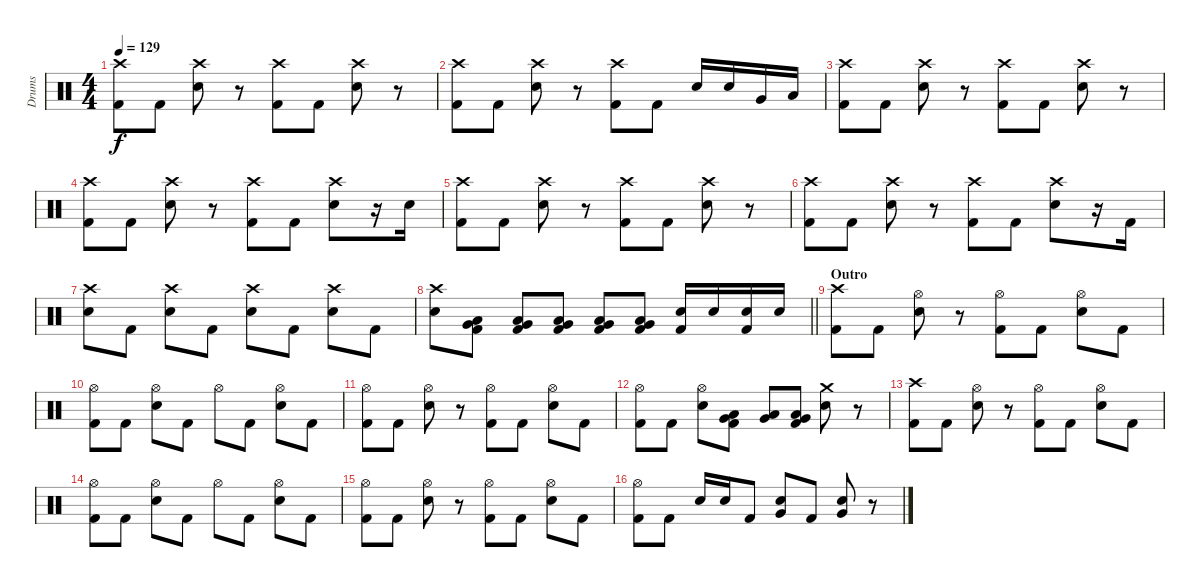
\track ("Drums" "Drums") {instrument percussion}
\staff {score}
\articulation defaults
\ts (4 4)
\tempo 129
\clef neutral
\ks c
("Crash high (hit)" "Kick (hit) 2").8{dy f} "Kick (hit) 2".8 ("Crash high (hit)" "Electric Snare (hit)").8 r.8 ("Crash high (hit)" "Kick (hit) 2").8 "Kick (hit) 2".8 ("Crash high (hit)" "Electric Snare (hit)").8 r.8 |
("Crash high (hit)" "Kick (hit) 2").8 "Kick (hit) 2".8 ("Crash high (hit)" "Electric Snare (hit)").8 r.8 ("Crash high (hit)" "Kick (hit) 2").8 "Kick (hit) 2".8 "Electric Snare (hit)".16 "Electric Snare (hit)".16 "Very Low Tom (hit)".16 "Low Tom (hit)".16 |
("Crash high (hit)" "Kick (hit) 2").8 "Kick (hit) 2".8 ("Crash high (hit)" "Electric Snare (hit)").8 r.8 ("Crash high (hit)" "Kick (hit) 2").8 "Kick (hit) 2".8 ("Crash high (hit)" "Electric Snare (hit)").8 r.8 |
("Crash high (hit)" "Kick (hit) 2").8 "Kick (hit) 2".8 ("Crash high (hit)" "Electric Snare (hit)").8 r.8 ("Crash high (hit)" "Kick (hit) 2").8 "Kick (hit) 2".8 ("Crash high (hit)" "Electric Snare (hit)").8 r.16 "Electric Snare (hit)".16 |
("Crash high (hit)" "Kick (hit) 2").8 "Kick (hit) 2".8 ("Crash high (hit)" "Electric Snare (hit)").8 r.8 ("Crash high (hit)" "Kick (hit) 2").8 "Kick (hit) 2".8 ("Crash high (hit)" "Electric Snare (hit)").8 r.8 |
("Crash high (hit)" "Kick (hit) 2").8 "Kick (hit) 2".8 ("Crash high (hit)" "Electric Snare (hit)").8 r.8 ("Crash high (hit)" "Kick (hit) 2").8 "Kick (hit) 2".8 ("Crash high (hit)" "Electric Snare (hit)").8 r.16 "Kick (hit) 2".16 |
("Crash high (hit)" "Electric Snare (hit)").8 "Kick (hit) 2".8 ("Crash high (hit)" "Electric Snare (hit)").8 "Kick (hit) 2".8 ("Crash high (hit)" "Electric Snare (hit)").8 "Kick (hit) 2".8 ("Crash high (hit)" "Electric Snare (hit)").8 "Kick (hit) 2".8 |
\barLineRight lightlight
("Crash high (hit)" "Electric Snare (hit)").8 ("Very Low Tom (hit)" "Low Tom (hit)" "Kick (hit) 2").8 ("Very Low Tom (hit)" "Low Tom (hit)" "Kick (hit) 2").8 ("Very Low Tom (hit)" "Low Tom (hit)" "Kick (hit) 2").8 ("Very Low Tom (hit)" "Low Tom (hit)" "Kick (hit) 2").8 ("Very Low Tom (hit)" "Low Tom (hit)" "Kick (hit) 2").8 ("Electric Snare (hit)" "Kick (hit) 2").16 "Electric Snare (hit)".16 ("Electric Snare (hit)" "Kick (hit) 2").16 "Electric Snare (hit)".16 |
\section ("" "Outro")
("Crash high (hit)" "Kick (hit) 2").8 "Kick (hit) 2".8 ("Hi-Hat (open)" "Electric Snare (hit)").8 r.8 ("Hi-Hat (open)" "Kick (hit) 2").8 "Kick (hit) 2".8 ("Hi-Hat (open)" "Electric Snare (hit)").8 "Kick (hit) 2".8 |
("Hi-Hat (open)" "Kick (hit) 2").8 "Kick (hit) 2".8 ("Hi-Hat (open)" "Electric Snare (hit)").8 "Kick (hit) 2".8 "Hi-Hat (open)".8 "Kick (hit) 2".8 ("Hi-Hat (open)" "Electric Snare (hit)").8 "Kick (hit) 2".8 |
("Hi-Hat (open)" "Kick (hit) 2").8 "Kick (hit) 2".8 ("Hi-Hat (open)" "Electric Snare (hit)").8 r.8 ("Hi-Hat (open)" "Kick (hit) 2").8 "Kick (hit) 2".8 ("Hi-Hat (open)" "Electric Snare (hit)").8 "Kick (hit) 2".8 |
("Hi-Hat (open)" "Kick (hit) 2").8 "Kick (hit) 2".8 ("Hi-Hat (open)" "Electric Snare (hit)").8 ("Very Low Tom (hit)" "Low Tom (hit)" "Kick (hit) 2").8 ("Very Low Tom (hit)" "Low Tom (hit)").8 ("Very Low Tom (hit)" "Low Tom (hit)" "Kick (hit) 2").8 ("Crash medium (hit)" "Electric Snare (hit)").8 r.8 |
("Crash high (hit)" "Kick (hit) 2").8 "Kick (hit) 2".8 ("Hi-Hat (open)" "Electric Snare (hit)").8 r.8 ("Hi-Hat (open)" "Kick (hit) 2").8 "Kick (hit) 2".8 ("Hi-Hat (open)" "Electric Snare (hit)").8 "Kick (hit) 2".8 |
("Hi-Hat (open)" "Kick (hit) 2").8 "Kick (hit) 2".8 ("Hi-Hat (open)" "Electric Snare (hit)").8 "Kick (hit) 2".8 "Hi-Hat (open)".8 "Kick (hit) 2".8 ("Hi-Hat (open)" "Electric Snare (hit)").8 "Kick (hit) 2".8 |
("Hi-Hat (open)" "Kick (hit) 2").8 "Kick (hit) 2".8 ("Hi-Hat (open)" "Electric Snare (hit)").8 r.8 ("Hi-Hat (open)" "Kick (hit) 2").8 "Kick (hit) 2".8 ("Hi-Hat (open)" "Electric Snare (hit)").8 "Kick (hit) 2".8 |
("Hi-Hat (open)" "Kick (hit) 2").8 "Kick (hit) 2".8 "Electric Snare (hit)".16 "Electric Snare (hit)".16 "Kick (hit) 2".8 ("Electric Snare (hit)" "Very Low Tom (hit)").8 "Kick (hit) 2".8 ("Electric Snare (hit)" "Very Low Tom (hit)").8 r.8
